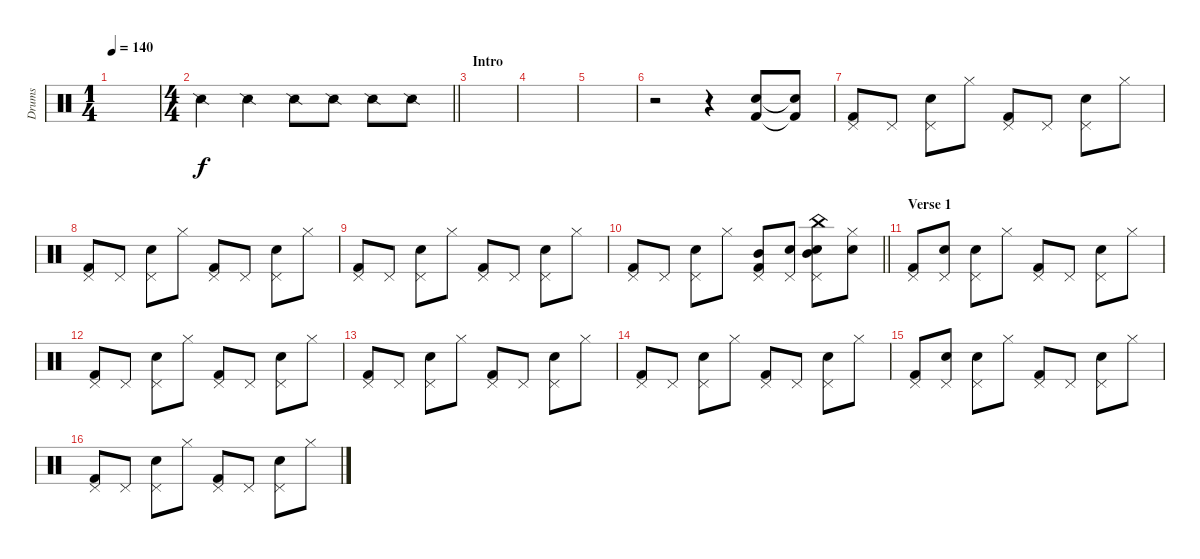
\track ("Drums" "Drums") {instrument percussion}
\staff {score}
\articulation defaults
\ts (1 4)
\tempo 140
\clef neutral
\ks c
|
\ts (4 4)
\barLineRight lightlight "Snare (side stick) 2".4 "Snare (side stick) 2".4 "Snare (side stick) 2".8 "Snare (side stick) 2".8 "Snare (side stick) 2".8 "Snare (side stick) 2".8
|
\section ("" "Intro")
|
|
|
r.2 r.4 ("Kick (hit) 2" "Snare (hit) 2").8 ("Kick (hit) 2"{t} "Snare (hit)"{t}).8 |
("Kick (hit) 2" "Pedal Hi-Hat (hit)").8 "Pedal Hi-Hat (hit)".8 ("Snare (hit) 2" "Pedal Hi-Hat (hit)").8 "Hi-Hat (closed)".8 ("Kick (hit) 2" "Pedal Hi-Hat (hit)").8 "Pedal Hi-Hat (hit)".8 ("Snare (hit) 2" "Pedal Hi-Hat (hit)").8 "Hi-Hat (closed)".8 |
("Kick (hit) 2" "Pedal Hi-Hat (hit)").8 "Pedal Hi-Hat (hit)".8 ("Snare (hit) 2" "Pedal Hi-Hat (hit)").8 "Hi-Hat (closed)".8 ("Kick (hit) 2" "Pedal Hi-Hat (hit)").8 "Pedal Hi-Hat (hit)".8 ("Snare (hit) 2" "Pedal Hi-Hat (hit)").8 "Hi-Hat (closed)".8 |
("Kick (hit) 2" "Pedal Hi-Hat (hit)").8 "Pedal Hi-Hat (hit)".8 ("Snare (hit) 2" "Pedal Hi-Hat (hit)").8 "Hi-Hat (closed)".8 ("Kick (hit) 2" "Pedal Hi-Hat (hit)").8 "Pedal Hi-Hat (hit)".8 ("Snare (hit) 2" "Pedal Hi-Hat (hit)").8 "Hi-Hat (closed)".8 |
\barLineRight lightlight
("Kick (hit) 2" "Pedal Hi-Hat (hit)").8 "Pedal Hi-Hat (hit)".8 ("Snare (hit) 2" "Pedal Hi-Hat (hit)").8 "Hi-Hat (closed)".8 ("Kick (hit) 2" "Mid Tom (hit)" "Pedal Hi-Hat (hit)").8 ("Hand Clap (hit)" "Pedal Hi-Hat (hit)").8 ("Snare (hit) 2" "China (hit)" "Mid Tom (hit)" "Pedal Hi-Hat (hit)").8 ("Hand Clap (hit)" "Hi-Hat (closed)").8 |
\section ("" "Verse 1")
("Kick (hit) 2" "Pedal Hi-Hat (hit)").8 ("Hand Clap (hit)" "Pedal Hi-Hat (hit)").8 ("Snare (hit) 2" "Pedal Hi-Hat (hit)").8 "Hi-Hat (closed)".8 ("Kick (hit) 2" "Pedal Hi-Hat (hit)").8 "Pedal Hi-Hat (hit)".8 ("Snare (hit) 2" "Pedal Hi-Hat (hit)").8 "Hi-Hat (closed)".8 |
("Kick (hit) 2" "Pedal Hi-Hat (hit)").8 "Pedal Hi-Hat (hit)".8 ("Snare (hit) 2" "Pedal Hi-Hat (hit)").8 "Hi-Hat (closed)".8 ("Kick (hit) 2" "Pedal Hi-Hat (hit)").8 "Pedal Hi-Hat (hit)".8 ("Snare (hit) 2" "Pedal Hi-Hat (hit)").8 "Hi-Hat (closed)".8 |
("Kick (hit) 2" "Pedal Hi-Hat (hit)").8 "Pedal Hi-Hat (hit)".8 ("Snare (hit) 2" "Pedal Hi-Hat (hit)").8 "Hi-Hat (closed)".8 ("Kick (hit) 2" "Pedal Hi-Hat (hit)").8 "Pedal Hi-Hat (hit)".8 ("Snare (hit) 2" "Pedal Hi-Hat (hit)").8 "Hi-Hat (closed)".8 |
("Kick (hit) 2" "Pedal Hi-Hat (hit)").8 "Pedal Hi-Hat (hit)".8 ("Snare (hit) 2" "Pedal Hi-Hat (hit)").8 "Hi-Hat (closed)".8 ("Kick (hit) 2" "Pedal Hi-Hat (hit)").8 "Pedal Hi-Hat (hit)".8 ("Snare (hit) 2" "Pedal Hi-Hat (hit)").8 "Hi-Hat (closed)".8 |
("Kick (hit) 2" "Pedal Hi-Hat (hit)").8 ("Hand Clap (hit)" "Pedal Hi-Hat (hit)").8 ("Snare (hit) 2" "Pedal Hi-Hat (hit)").8 "Hi-Hat (closed)".8 ("Kick (hit) 2" "Pedal Hi-Hat (hit)").8 "Pedal Hi-Hat (hit)".8 ("Snare (hit) 2" "Pedal Hi-Hat (hit)").8 "Hi-Hat (closed)".8 |
("Kick (hit) 2" "Pedal Hi-Hat (hit)").8 "Pedal Hi-Hat (hit)".8 ("Snare (hit) 2" "Pedal Hi-Hat (hit)").8 "Hi-Hat (closed)".8 ("Kick (hit) 2" "Pedal Hi-Hat (hit)").8 "Pedal Hi-Hat (hit)".8 ("Snare (hit) 2" "Pedal Hi-Hat (hit)").8 "Hi-Hat (closed)".8
